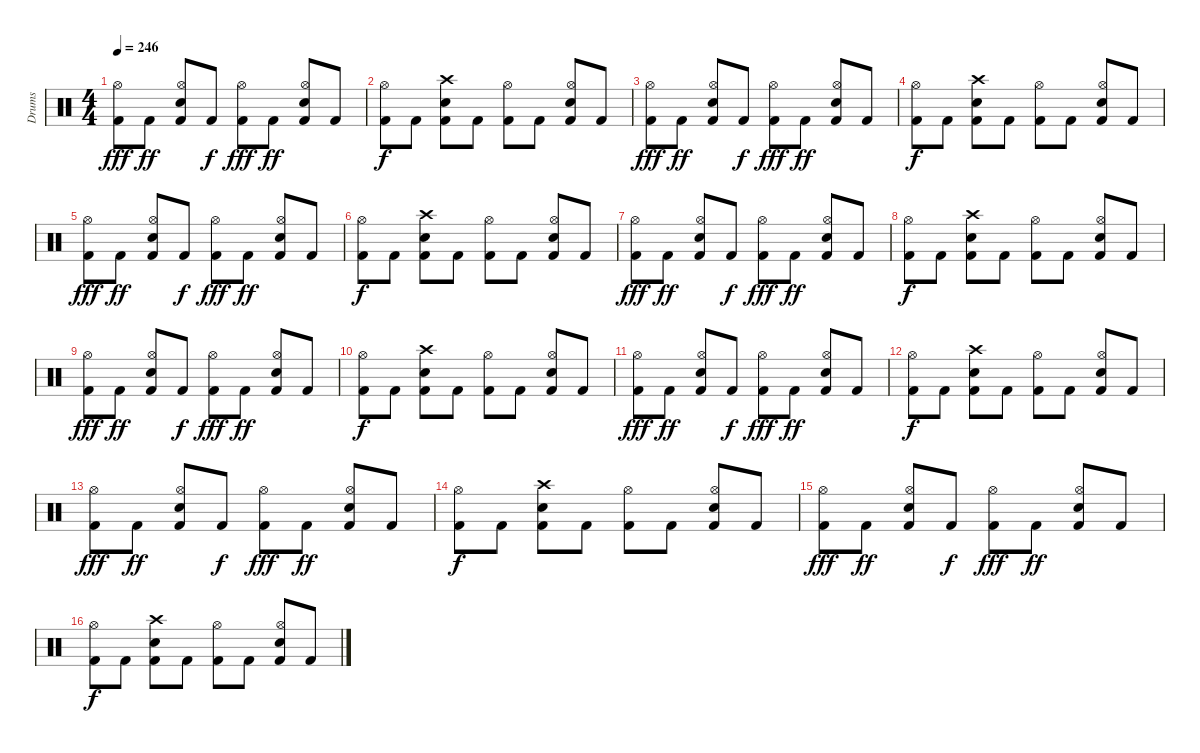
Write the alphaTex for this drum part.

\track ("Drums" "Drums") {instrument percussion}
\staff {score}
\articulation defaults
\ts (4 4)
\tempo 246
\clef neutral
\ks c
("Kick (hit) 2" "Hi-Hat (open)").8{dy fff volume 12} "Kick (hit) 2".8{dy ff} ("Kick (hit) 2" "Snare (hit) 2" "Hi-Hat (open)").8 "Kick (hit) 2".8{dy f} ("Kick (hit) 2" "Hi-Hat (open)").8{dy fff} "Kick (hit) 2".8{dy ff} ("Kick (hit) 2" "Snare (hit) 2" "Hi-Hat (open)").8 "Kick (hit) 2".8 |
("Kick (hit) 2" "Hi-Hat (open)").8{dy f volume 12} "Kick (hit) 2".8 ("Kick (hit) 2" "Snare (hit) 2" "Crash high (hit)").8 "Kick (hit) 2".8 ("Kick (hit) 2" "Hi-Hat (open)").8 "Kick (hit) 2".8 ("Kick (hit) 2" "Snare (hit) 2" "Hi-Hat (open)").8 "Kick (hit) 2".8 |
("Kick (hit) 2" "Hi-Hat (open)").8{dy fff volume 12} "Kick (hit) 2".8{dy ff} ("Kick (hit) 2" "Snare (hit) 2" "Hi-Hat (open)").8 "Kick (hit) 2".8{dy f} ("Kick (hit) 2" "Hi-Hat (open)").8{dy fff} "Kick (hit) 2".8{dy ff} ("Kick (hit) 2" "Snare (hit) 2" "Hi-Hat (open)").8 "Kick (hit) 2".8 |
("Kick (hit) 2" "Hi-Hat (open)").8{dy f volume 12} "Kick (hit) 2".8 ("Kick (hit) 2" "Snare (hit) 2" "Crash high (hit)").8 "Kick (hit) 2".8 ("Kick (hit) 2" "Hi-Hat (open)").8 "Kick (hit) 2".8 ("Kick (hit) 2" "Snare (hit) 2" "Hi-Hat (open)").8 "Kick (hit) 2".8 |
("Kick (hit) 2" "Hi-Hat (open)").8{dy fff volume 12} "Kick (hit) 2".8{dy ff} ("Kick (hit) 2" "Snare (hit) 2" "Hi-Hat (open)").8 "Kick (hit) 2".8{dy f} ("Kick (hit) 2" "Hi-Hat (open)").8{dy fff} "Kick (hit) 2".8{dy ff} ("Kick (hit) 2" "Snare (hit) 2" "Hi-Hat (open)").8 "Kick (hit) 2".8 |
("Kick (hit) 2" "Hi-Hat (open)").8{dy f volume 12} "Kick (hit) 2".8 ("Kick (hit) 2" "Snare (hit) 2" "Crash high (hit)").8 "Kick (hit) 2".8 ("Kick (hit) 2" "Hi-Hat (open)").8 "Kick (hit) 2".8 ("Kick (hit) 2" "Snare (hit) 2" "Hi-Hat (open)").8 "Kick (hit) 2".8 |
("Kick (hit) 2" "Hi-Hat (open)").8{dy fff volume 12} "Kick (hit) 2".8{dy ff} ("Kick (hit) 2" "Snare (hit) 2" "Hi-Hat (open)").8 "Kick (hit) 2".8{dy f} ("Kick (hit) 2" "Hi-Hat (open)").8{dy fff} "Kick (hit) 2".8{dy ff} ("Kick (hit) 2" "Snare (hit) 2" "Hi-Hat (open)").8 "Kick (hit) 2".8 |
("Kick (hit) 2" "Hi-Hat (open)").8{dy f volume 12} "Kick (hit) 2".8 ("Kick (hit) 2" "Snare (hit) 2" "Crash high (hit)").8 "Kick (hit) 2".8 ("Kick (hit) 2" "Hi-Hat (open)").8 "Kick (hit) 2".8 ("Kick (hit) 2" "Snare (hit) 2" "Hi-Hat (open)").8 "Kick (hit) 2".8 |
("Kick (hit) 2" "Hi-Hat (open)").8{dy fff volume 12} "Kick (hit) 2".8{dy ff} ("Kick (hit) 2" "Snare (hit) 2" "Hi-Hat (open)").8 "Kick (hit) 2".8{dy f} ("Kick (hit) 2" "Hi-Hat (open)").8{dy fff} "Kick (hit) 2".8{dy ff} ("Kick (hit) 2" "Snare (hit) 2" "Hi-Hat (open)").8 "Kick (hit) 2".8 |
("Kick (hit) 2" "Hi-Hat (open)").8{dy f volume 12} "Kick (hit) 2".8 ("Kick (hit) 2" "Snare (hit) 2" "Crash high (hit)").8 "Kick (hit) 2".8 ("Kick (hit) 2" "Hi-Hat (open)").8 "Kick (hit) 2".8 ("Kick (hit) 2" "Snare (hit) 2" "Hi-Hat (open)").8 "Kick (hit) 2".8 |
("Kick (hit) 2" "Hi-Hat (open)").8{dy fff volume 12} "Kick (hit) 2".8{dy ff} ("Kick (hit) 2" "Snare (hit) 2" "Hi-Hat (open)").8 "Kick (hit) 2".8{dy f} ("Kick (hit) 2" "Hi-Hat (open)").8{dy fff} "Kick (hit) 2".8{dy ff} ("Kick (hit) 2" "Snare (hit) 2" "Hi-Hat (open)").8 "Kick (hit) 2".8 |
("Kick (hit) 2" "Hi-Hat (open)").8{dy f volume 12} "Kick (hit) 2".8 ("Kick (hit) 2" "Snare (hit) 2" "Crash high (hit)").8 "Kick (hit) 2".8 ("Kick (hit) 2" "Hi-Hat (open)").8 "Kick (hit) 2".8 ("Kick (hit) 2" "Snare (hit) 2" "Hi-Hat (open)").8 "Kick (hit) 2".8 |
("Kick (hit) 2" "Hi-Hat (open)").8{dy fff volume 12} "Kick (hit) 2".8{dy ff} ("Kick (hit) 2" "Snare (hit) 2" "Hi-Hat (open)").8 "Kick (hit) 2".8{dy f} ("Kick (hit) 2" "Hi-Hat (open)").8{dy fff} "Kick (hit) 2".8{dy ff} ("Kick (hit) 2" "Snare (hit) 2" "Hi-Hat (open)").8 "Kick (hit) 2".8 |
("Kick (hit) 2" "Hi-Hat (open)").8{dy f volume 12} "Kick (hit) 2".8 ("Kick (hit) 2" "Snare (hit) 2" "Crash high (hit)").8 "Kick (hit) 2".8 ("Kick (hit) 2" "Hi-Hat (open)").8 "Kick (hit) 2".8 ("Kick (hit) 2" "Snare (hit) 2" "Hi-Hat (open)").8 "Kick (hit) 2".8 |
("Kick (hit) 2" "Hi-Hat (open)").8{dy fff volume 12} "Kick (hit) 2".8{dy ff} ("Kick (hit) 2" "Snare (hit) 2" "Hi-Hat (open)").8 "Kick (hit) 2".8{dy f} ("Kick (hit) 2" "Hi-Hat (open)").8{dy fff} "Kick (hit) 2".8{dy ff} ("Kick (hit) 2" "Snare (hit) 2" "Hi-Hat (open)").8 "Kick (hit) 2".8 |
("Kick (hit) 2" "Hi-Hat (open)").8{dy f volume 12} "Kick (hit) 2".8 ("Kick (hit) 2" "Snare (hit) 2" "Crash high (hit)").8 "Kick (hit) 2".8 ("Kick (hit) 2" "Hi-Hat (open)").8 "Kick (hit) 2".8 ("Kick (hit) 2" "Snare (hit) 2" "Hi-Hat (open)").8 "Kick (hit) 2".8
